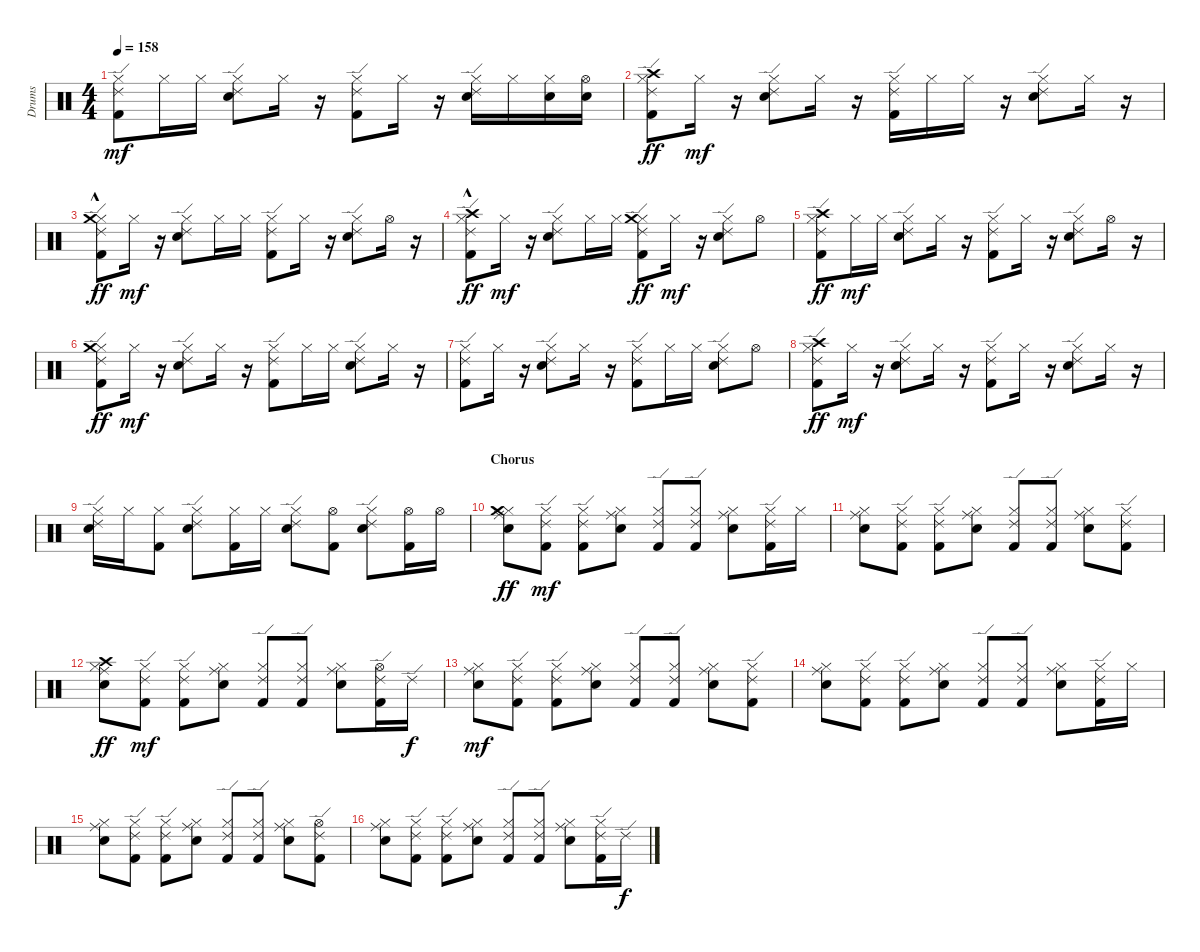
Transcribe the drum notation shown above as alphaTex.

\track ("Drums" "Drums") {instrument percussion}
\staff {score}
\articulation defaults
\ts (4 4)
\tempo 158
\clef neutral
\ks c
("Kick (hit) 2" "Hi-Hat (closed)" "Ride (edge) 2").8{dy mf} "Hi-Hat (closed)".16 "Hi-Hat (closed)".16 ("Snare (hit) 2" "Hi-Hat (closed)" "Ride (edge) 2").8 "Hi-Hat (closed)".16 r.16 ("Kick (hit) 2" "Hi-Hat (closed)" "Ride (edge) 2").8 "Hi-Hat (closed)".16 r.16 ("Snare (hit) 2" "Hi-Hat (closed)" "Ride (edge) 2").16 "Hi-Hat (closed)".16 ("Snare (hit) 2" "Hi-Hat (closed)").16 ("Snare (hit) 2" "Hi-Hat (open)").16 |
("Kick (hit) 2" "Hi-Hat (closed)" "Ride (edge) 2" "Crash high (hit)").8{dy ff} "Hi-Hat (closed)".16{dy mf} r.16 ("Snare (hit) 2" "Hi-Hat (closed)" "Ride (edge) 2").8 "Hi-Hat (closed)".16 r.16 ("Kick (hit) 2" "Hi-Hat (closed)" "Ride (edge) 2").16 "Hi-Hat (closed)".16 "Hi-Hat (closed)".16 r.16 ("Snare (hit) 2" "Hi-Hat (closed)" "Ride (edge) 2").8 "Hi-Hat (closed)".16 r.16 |
("Kick (hit) 2" "Hi-Hat (closed)" "Ride (edge) 2" "Crash medium (hit)"{hac}).8{dy ff} "Hi-Hat (closed)".16{dy mf} r.16 ("Snare (hit) 2" "Hi-Hat (closed)" "Ride (edge) 2").8 "Hi-Hat (closed)".16 "Hi-Hat (closed)".16 ("Kick (hit) 2" "Hi-Hat (closed)" "Ride (edge) 2").8 "Hi-Hat (closed)".16 r.16 ("Snare (hit) 2" "Hi-Hat (closed)" "Ride (edge) 2").8 "Hi-Hat (open)".16 r.16 |
("Kick (hit) 2" "Hi-Hat (closed)" "Ride (edge) 2" "Crash high (hit)"{hac}).8{dy ff} "Hi-Hat (closed)".16{dy mf} r.16 ("Snare (hit) 2" "Hi-Hat (closed)" "Ride (edge) 2").8 "Hi-Hat (closed)".16 "Hi-Hat (closed)".16 ("Kick (hit) 2" "Hi-Hat (closed)" "Ride (edge) 2" "Crash medium (hit)").8{dy ff} "Hi-Hat (closed)".16{dy mf} r.16 ("Snare (hit) 2" "Hi-Hat (closed)" "Ride (edge) 2").8 "Hi-Hat (open)".8 |
("Kick (hit) 2" "Hi-Hat (closed)" "Ride (edge) 2" "Crash high (hit)").8{dy ff} "Hi-Hat (closed)".16{dy mf} "Hi-Hat (closed)".16 ("Snare (hit) 2" "Hi-Hat (closed)" "Ride (edge) 2").8 "Hi-Hat (closed)".16 r.16 ("Kick (hit) 2" "Hi-Hat (closed)" "Ride (edge) 2").8 "Hi-Hat (closed)".16 r.16 ("Snare (hit) 2" "Hi-Hat (closed)" "Ride (edge) 2").8 "Hi-Hat (open)".16 r.16 |
("Kick (hit) 2" "Hi-Hat (closed)" "Ride (edge) 2" "Crash medium (hit)").8{dy ff} "Hi-Hat (closed)".16{dy mf} r.16 ("Snare (hit) 2" "Hi-Hat (closed)" "Ride (edge) 2").8 "Hi-Hat (closed)".16 r.16 ("Kick (hit) 2" "Hi-Hat (closed)" "Ride (edge) 2").8 "Hi-Hat (closed)".16 "Hi-Hat (closed)".16 ("Snare (hit) 2" "Hi-Hat (closed)" "Ride (edge) 2").8 "Hi-Hat (closed)".16 r.16 |
("Kick (hit) 2" "Hi-Hat (closed)" "Ride (edge) 2").8 "Hi-Hat (closed)".16 r.16 ("Snare (hit) 2" "Hi-Hat (closed)" "Ride (edge) 2").8 "Hi-Hat (closed)".16 r.16 ("Kick (hit) 2" "Hi-Hat (closed)" "Ride (edge) 2").8 "Hi-Hat (closed)".16 "Hi-Hat (closed)".16 ("Snare (hit) 2" "Hi-Hat (closed)" "Ride (edge) 2").8 "Hi-Hat (open)".8 |
("Kick (hit) 2" "Hi-Hat (closed)" "Ride (edge) 2" "Crash high (hit)").8{dy ff} "Hi-Hat (closed)".16{dy mf} r.16 ("Snare (hit) 2" "Hi-Hat (closed)" "Ride (edge) 2").8 "Hi-Hat (closed)".16 r.16 ("Kick (hit) 2" "Hi-Hat (closed)" "Ride (edge) 2").8 "Hi-Hat (closed)".16 r.16 ("Snare (hit) 2" "Hi-Hat (closed)" "Ride (edge) 2").8 "Hi-Hat (closed)".16 r.16 |
("Snare (hit) 2" "Hi-Hat (closed)" "Ride (edge) 2").16 "Hi-Hat (closed)".16 ("Kick (hit) 2" "Hi-Hat (closed)").8 ("Snare (hit) 2" "Hi-Hat (closed)" "Ride (edge) 2").8 ("Kick (hit) 2" "Hi-Hat (closed)").16 "Hi-Hat (closed)".16 ("Snare (hit) 2" "Hi-Hat (closed)" "Ride (edge) 2").8 ("Kick (hit) 2" "Hi-Hat (open)").8 ("Snare (hit) 2" "Hi-Hat (closed)" "Ride (edge) 2").8 ("Kick (hit) 2" "Hi-Hat (open)").16 "Hi-Hat (open)".16 |
\section ("" "Chorus")
("Snare (hit) 2" "Hi-Hat (closed)" "Ride (middle)" "Crash medium (hit)").8{dy ff} ("Kick (hit) 2" "Hi-Hat (closed)" "Ride (edge) 2").8{dy mf} ("Kick (hit) 2" "Hi-Hat (closed)" "Ride (edge) 2").8 ("Snare (hit) 2" "Hi-Hat (closed)" "Ride (middle)").8 ("Kick (hit) 2" "Hi-Hat (closed)" "Ride (edge) 2").8 ("Kick (hit) 2" "Hi-Hat (closed)" "Ride (edge) 2").8 ("Snare (hit) 2" "Hi-Hat (closed)" "Ride (middle)").8 ("Kick (hit) 2" "Hi-Hat (closed)" "Ride (edge) 2").16 "Hi-Hat (closed)".16 |
("Snare (hit) 2" "Hi-Hat (closed)" "Ride (middle)").8 ("Kick (hit) 2" "Hi-Hat (closed)" "Ride (edge) 2").8 ("Kick (hit) 2" "Hi-Hat (closed)" "Ride (edge) 2").8 ("Snare (hit) 2" "Hi-Hat (closed)" "Ride (middle)").8 ("Kick (hit) 2" "Hi-Hat (closed)" "Ride (edge) 2").8 ("Kick (hit) 2" "Hi-Hat (closed)" "Ride (edge) 2").8 ("Snare (hit) 2" "Hi-Hat (closed)" "Ride (middle)").8 ("Kick (hit) 2" "Hi-Hat (closed)" "Ride (edge) 2").8 |
("Snare (hit) 2" "Hi-Hat (closed)" "Ride (middle)" "Crash high (hit)").8{dy ff} ("Kick (hit) 2" "Hi-Hat (closed)" "Ride (edge) 2").8{dy mf} ("Kick (hit) 2" "Hi-Hat (closed)" "Ride (edge) 2").8 ("Snare (hit) 2" "Hi-Hat (closed)" "Ride (middle)").8 ("Kick (hit) 2" "Hi-Hat (closed)" "Ride (edge) 2").8 ("Kick (hit) 2" "Hi-Hat (closed)" "Ride (edge) 2").8 ("Snare (hit) 2" "Hi-Hat (closed)" "Ride (middle)").8 ("Kick (hit) 2" "Hi-Hat (open)" "Ride (edge) 2").16 "Ride (edge) 2".16{dy f} |
("Snare (hit) 2" "Hi-Hat (closed)" "Ride (middle)").8{dy mf} ("Kick (hit) 2" "Hi-Hat (closed)" "Ride (edge) 2").8 ("Kick (hit) 2" "Hi-Hat (closed)" "Ride (edge) 2").8 ("Snare (hit) 2" "Hi-Hat (closed)" "Ride (middle)").8 ("Kick (hit) 2" "Hi-Hat (closed)" "Ride (edge) 2").8 ("Kick (hit) 2" "Hi-Hat (closed)" "Ride (edge) 2").8 ("Snare (hit) 2" "Hi-Hat (closed)" "Ride (middle)").8 ("Kick (hit) 2" "Hi-Hat (closed)" "Ride (edge) 2").8 |
("Snare (hit) 2" "Hi-Hat (closed)" "Ride (middle)").8 ("Kick (hit) 2" "Hi-Hat (closed)" "Ride (edge) 2").8 ("Kick (hit) 2" "Hi-Hat (closed)" "Ride (edge) 2").8 ("Snare (hit) 2" "Hi-Hat (closed)" "Ride (middle)").8 ("Kick (hit) 2" "Hi-Hat (closed)" "Ride (edge) 2").8 ("Kick (hit) 2" "Hi-Hat (closed)" "Ride (edge) 2").8 ("Snare (hit) 2" "Hi-Hat (closed)" "Ride (middle)").8 ("Kick (hit) 2" "Hi-Hat (closed)" "Ride (edge) 2").16 "Hi-Hat (closed)".16 |
("Snare (hit) 2" "Hi-Hat (closed)" "Ride (middle)").8 ("Kick (hit) 2" "Hi-Hat (closed)" "Ride (edge) 2").8 ("Kick (hit) 2" "Hi-Hat (closed)" "Ride (edge) 2").8 ("Snare (hit) 2" "Hi-Hat (closed)" "Ride (middle)").8 ("Kick (hit) 2" "Hi-Hat (closed)" "Ride (edge) 2").8 ("Kick (hit) 2" "Hi-Hat (closed)" "Ride (edge) 2").8 ("Snare (hit) 2" "Hi-Hat (closed)" "Ride (middle)").8 ("Kick (hit) 2" "Hi-Hat (open)" "Ride (edge) 2").8 |
("Snare (hit) 2" "Hi-Hat (closed)" "Ride (middle)").8 ("Kick (hit) 2" "Hi-Hat (closed)" "Ride (edge) 2").8 ("Kick (hit) 2" "Hi-Hat (closed)" "Ride (edge) 2").8 ("Snare (hit) 2" "Hi-Hat (closed)" "Ride (middle)").8 ("Kick (hit) 2" "Hi-Hat (closed)" "Ride (edge) 2").8 ("Kick (hit) 2" "Hi-Hat (closed)" "Ride (edge) 2").8 ("Snare (hit) 2" "Hi-Hat (closed)" "Ride (middle)").8 ("Kick (hit) 2" "Hi-Hat (closed)" "Ride (edge) 2").16 "Ride (edge) 2".16{dy f}
